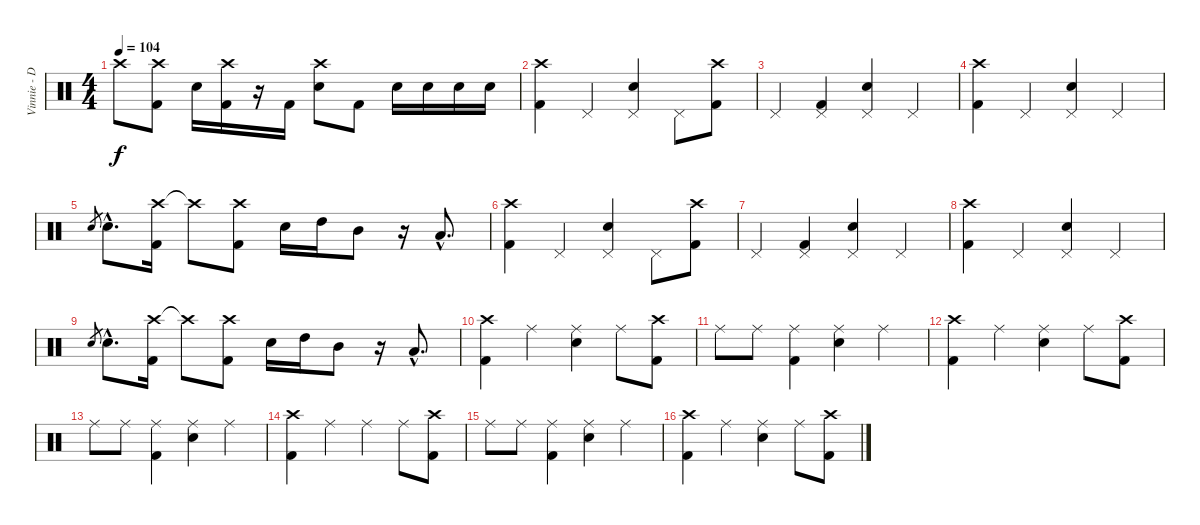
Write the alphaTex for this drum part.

\track ("Vinnie - Drums" "Vinnie - D") {instrument percussion}
\staff {score}
\articulation defaults
\ts (4 4)
\tempo 104
\clef neutral
\ks c "Crash high (hit)".8{dy f}
("Crash high (hit)" "Kick (hit) 2").8 "Electric Snare (hit)".16 ("Crash high (hit)" "Kick (hit) 2").16 r.16 "Kick (hit) 2".16 ("Crash high (hit)" "Electric Snare (hit)").8 "Kick (hit) 2".8 "Electric Snare (hit)".16 "Electric Snare (hit)".16 "Electric Snare (hit)".16 "Electric Snare (hit)".16 |
("Crash high (hit)" "Kick (hit) 2").4 "Pedal Hi-Hat (hit)".4 ("Pedal Hi-Hat (hit)" "Electric Snare (hit)").4 "Pedal Hi-Hat (hit)".8 ("Crash high (hit)" "Kick (hit) 2").8 |
"Pedal Hi-Hat (hit)".4 ("Pedal Hi-Hat (hit)" "Kick (hit) 2").4 ("Pedal Hi-Hat (hit)" "Electric Snare (hit)").4 "Pedal Hi-Hat (hit)".4 |
("Crash high (hit)" "Kick (hit) 2").4 "Pedal Hi-Hat (hit)".4 ("Pedal Hi-Hat (hit)" "Electric Snare (hit)").4 "Pedal Hi-Hat (hit)".4 |
"Electric Snare (hit)".8{gr} "Electric Snare (hit)"{hac}.8{d} ("Crash high (hit)" "Kick (hit) 2").16 "Crash high (hit)"{t}.8 ("Crash high (hit)" "Kick (hit) 2").8 "Electric Snare (hit)".16 "High Tom (hit)".16 "Mid Tom (hit)".8 r.16 "Low Tom (hit)"{hac}.8{d} |
("Crash high (hit)" "Kick (hit) 2").4 "Pedal Hi-Hat (hit)".4 ("Pedal Hi-Hat (hit)" "Electric Snare (hit)").4 "Pedal Hi-Hat (hit)".8 ("Crash high (hit)" "Kick (hit) 2").8 |
"Pedal Hi-Hat (hit)".4 ("Pedal Hi-Hat (hit)" "Kick (hit) 2").4 ("Pedal Hi-Hat (hit)" "Electric Snare (hit)").4 "Pedal Hi-Hat (hit)".4 |
("Crash high (hit)" "Kick (hit) 2").4 "Pedal Hi-Hat (hit)".4 ("Pedal Hi-Hat (hit)" "Electric Snare (hit)").4 "Pedal Hi-Hat (hit)".4 |
"Electric Snare (hit)".8{gr} "Electric Snare (hit)"{hac}.8{d} ("Crash high (hit)" "Kick (hit) 2").16 "Crash high (hit)"{t}.8 ("Crash high (hit)" "Kick (hit) 2").8 "Electric Snare (hit)".16 "High Tom (hit)".16 "Mid Tom (hit)".8 r.16 "Low Tom (hit)"{hac}.8{d} |
("Crash high (hit)" "Kick (hit) 2").4 "Ride (middle)".4 ("Ride (middle)" "Electric Snare (hit)").4 "Ride (middle)".8 ("Crash high (hit)" "Kick (hit) 2").8 |
"Ride (middle)".8 "Ride (middle)".8 ("Ride (middle)" "Kick (hit) 2").4 ("Ride (middle)" "Electric Snare (hit)").4 "Ride (middle)".4 |
("Crash high (hit)" "Kick (hit) 2").4 "Ride (middle)".4 ("Ride (middle)" "Electric Snare (hit)").4 "Ride (middle)".8 ("Crash high (hit)" "Kick (hit) 2").8 |
"Ride (middle)".8 "Ride (middle)".8 ("Ride (middle)" "Kick (hit) 2").4 ("Ride (middle)" "Electric Snare (hit)").4 "Ride (middle)".4 |
("Crash high (hit)" "Kick (hit) 2").4 "Ride (middle)".4 "Ride (middle)".4 "Ride (middle)".8 ("Crash high (hit)" "Kick (hit) 2").8 |
"Ride (middle)".8 "Ride (middle)".8 ("Ride (middle)" "Kick (hit) 2").4 ("Ride (middle)" "Electric Snare (hit)").4 "Ride (middle)".4 |
("Crash high (hit)" "Kick (hit) 2").4 "Ride (middle)".4 ("Ride (middle)" "Electric Snare (hit)").4 "Ride (middle)".8 ("Crash high (hit)" "Kick (hit) 2").8
